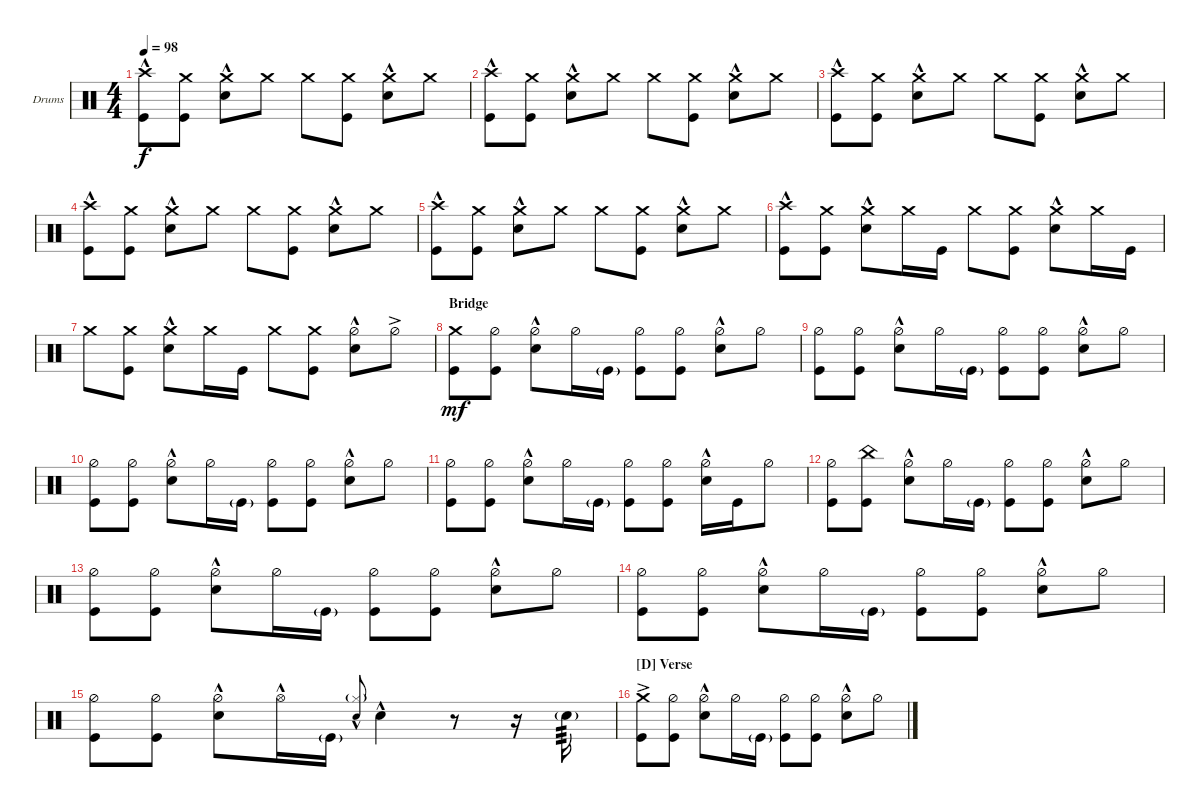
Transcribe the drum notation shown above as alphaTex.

\defaultSystemsLayout 4
\bracketExtendMode groupsimilarinstruments
\firstSystemTrackNameOrientation horizontal
\otherSystemsTrackNameOrientation horizontal
\track ("Drumkit (Chad Smith)" "Drums") {instrument percussion}
\staff {score}
\articulation defaults
\ts (4 4)
\tempo 98
\clef neutral
\scale
0.333333
\ks c
("Kick (hit)" "Crash high (hit)"{hac}).8{dy f} ("Crash medium (hit)" "Kick (hit)").8 ("Crash medium (hit)" "Snare (hit) 2"{hac}).8 "Crash medium (hit)".8 "Crash medium (hit)".8 ("Crash medium (hit)" "Kick (hit)").8 ("Crash medium (hit)" "Snare (hit) 2"{hac}).8 "Crash medium (hit)".8 |
\scale
0.333333 ("Kick (hit)" "Crash high (hit)"{hac}).8 ("Crash medium (hit)" "Kick (hit)").8 ("Crash medium (hit)" "Snare (hit) 2"{hac}).8 "Crash medium (hit)".8 "Crash medium (hit)".8 ("Crash medium (hit)" "Kick (hit)").8 ("Crash medium (hit)" "Snare (hit) 2"{hac}).8 "Crash medium (hit)".8 |
\scale
0.333333 ("Kick (hit)" "Crash high (hit)"{hac}).8 ("Crash medium (hit)" "Kick (hit)").8 ("Crash medium (hit)" "Snare (hit) 2"{hac}).8 "Crash medium (hit)".8 "Crash medium (hit)".8 ("Crash medium (hit)" "Kick (hit)").8 ("Crash medium (hit)" "Snare (hit) 2"{hac}).8 "Crash medium (hit)".8 |
\scale
0.333333 ("Kick (hit)" "Crash high (hit)"{hac}).8 ("Crash medium (hit)" "Kick (hit)").8 ("Crash medium (hit)" "Snare (hit) 2"{hac}).8 "Crash medium (hit)".8 "Crash medium (hit)".8 ("Crash medium (hit)" "Kick (hit)").8 ("Crash medium (hit)" "Snare (hit) 2"{hac}).8 "Crash medium (hit)".8 |
\scale
0.333333 ("Kick (hit)" "Crash high (hit)"{hac}).8 ("Crash medium (hit)" "Kick (hit)").8 ("Crash medium (hit)" "Snare (hit) 2"{hac}).8 "Crash medium (hit)".8 "Crash medium (hit)".8 ("Crash medium (hit)" "Kick (hit)").8 ("Crash medium (hit)" "Snare (hit) 2"{hac}).8 "Crash medium (hit)".8 |
\scale
0.333333 ("Kick (hit)" "Crash high (hit)"{hac}).8 ("Crash medium (hit)" "Kick (hit)").8 ("Crash medium (hit)" "Snare (hit) 2"{hac}).8 "Crash medium (hit)".16 "Kick (hit)".16 "Crash medium (hit)".8 ("Crash medium (hit)" "Kick (hit)").8 ("Crash medium (hit)" "Snare (hit) 2"{hac}).8 "Crash medium (hit)".16 "Kick (hit)".16 |
\scale
0.333333 "Crash medium (hit)".8 ("Crash medium (hit)" "Kick (hit)").8 ("Crash medium (hit)" "Snare (hit) 2"{hac}).8 "Crash medium (hit)".16 "Kick (hit)".16 "Crash medium (hit)".8 ("Crash medium (hit)" "Kick (hit)").8 ("Snare (hit) 2"{hac} "Hi-Hat (half)"{hac}).8 "Hi-Hat (half)"{ac}.8 |
\section ("" "Bridge")
\scale
0.333333 ("Kick (hit)" "Crash medium (hit)").8{dy mf} ("Kick (hit)" "Hi-Hat (half)").8 ("Snare (hit) 2"{hac} "Hi-Hat (half)").8 "Hi-Hat (half)".16 "Kick (hit)"{g}.16 ("Kick (hit)" "Hi-Hat (half)").8 ("Kick (hit)" "Hi-Hat (half)").8 ("Snare (hit) 2"{hac} "Hi-Hat (half)").8 "Hi-Hat (half)".8 |
\scale
0.333333 ("Kick (hit)" "Hi-Hat (half)").8 ("Kick (hit)" "Hi-Hat (half)").8 ("Snare (hit) 2"{hac} "Hi-Hat (half)").8 "Hi-Hat (half)".16 "Kick (hit)"{g}.16 ("Kick (hit)" "Hi-Hat (half)").8 ("Kick (hit)" "Hi-Hat (half)").8 ("Snare (hit) 2"{hac} "Hi-Hat (half)").8 "Hi-Hat (half)".8 |
\scale
0.333333 ("Kick (hit)" "Hi-Hat (half)").8 ("Kick (hit)" "Hi-Hat (half)").8 ("Snare (hit) 2"{hac} "Hi-Hat (half)").8 "Hi-Hat (half)".16 "Kick (hit)"{g}.16 ("Kick (hit)" "Hi-Hat (half)").8 ("Kick (hit)" "Hi-Hat (half)").8 ("Snare (hit) 2"{hac} "Hi-Hat (half)").8 "Hi-Hat (half)".8 |
\scale
0.333333 ("Kick (hit)" "Hi-Hat (half)").8 ("Kick (hit)" "Hi-Hat (half)").8 ("Snare (hit) 2"{hac} "Hi-Hat (half)").8 "Hi-Hat (half)".16 "Kick (hit)"{g}.16 ("Kick (hit)" "Hi-Hat (half)").8 ("Kick (hit)" "Hi-Hat (half)").8 ("Snare (hit) 2"{hac} "Hi-Hat (half)").16 "Kick (hit)".16 "Hi-Hat (half)".8 |
\scale
0.333333 ("Kick (hit)" "Hi-Hat (half)").8 ("Kick (hit)" "China (hit)").8 ("Snare (hit) 2"{hac} "Hi-Hat (half)").8 "Hi-Hat (half)".16 "Kick (hit)"{g}.16 ("Kick (hit)" "Hi-Hat (half)").8 ("Kick (hit)" "Hi-Hat (half)").8 ("Snare (hit) 2"{hac} "Hi-Hat (half)").8 "Hi-Hat (half)".8 |
\scale
0.333333 ("Kick (hit)" "Hi-Hat (half)").8 ("Kick (hit)" "Hi-Hat (half)").8 ("Snare (hit) 2"{hac} "Hi-Hat (half)").8 "Hi-Hat (half)".16 "Kick (hit)"{g}.16 ("Kick (hit)" "Hi-Hat (half)").8 ("Kick (hit)" "Hi-Hat (half)").8 ("Snare (hit) 2"{hac} "Hi-Hat (half)").8 "Hi-Hat (half)".8 |
\scale
0.333333 ("Kick (hit)" "Hi-Hat (half)").8 ("Kick (hit)" "Hi-Hat (half)").8 ("Snare (hit) 2"{hac} "Hi-Hat (half)").8 "Hi-Hat (half)".16 "Kick (hit)"{g}.16 ("Kick (hit)" "Hi-Hat (half)").8 ("Kick (hit)" "Hi-Hat (half)").8 ("Snare (hit) 2"{hac} "Hi-Hat (half)").8 "Hi-Hat (half)".8 |
\scale
0.333333 ("Kick (hit)" "Hi-Hat (half)").8 ("Kick (hit)" "Hi-Hat (half)").8 ("Snare (hit) 2"{hac} "Hi-Hat (half)").8 "Hi-Hat (open)"{hac}.16 "Kick (hit)"{g}.16 ("Snare (hit) 2"{hac} "Hi-Hat (closed)"{g}).8{gr onbeat} "Snare (hit) 2"{hac}.4 r.8 r.16 "Snare (hit) 2"{g}.16{tp 3} |
\section ("D" "Verse")
\scale
0.333333 ("Kick (hit)" "Crash medium (hit)"{ac}).8 ("Kick (hit)" "Hi-Hat (half)").8 ("Snare (hit) 2"{hac} "Hi-Hat (half)").8 "Hi-Hat (half)".16 "Kick (hit)"{g}.16 ("Kick (hit)" "Hi-Hat (half)").8 ("Kick (hit)" "Hi-Hat (half)").8 ("Snare (hit) 2"{hac} "Hi-Hat (half)").8 "Hi-Hat (half)".8
